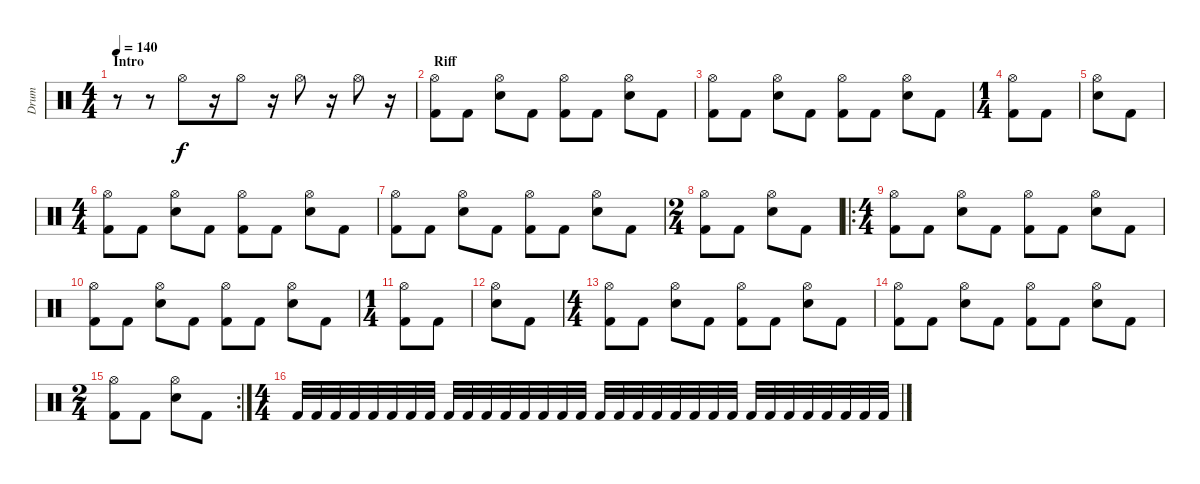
\track ("Drum" "Drum") {instrument percussion}
\staff {score}
\articulation defaults
\ts (4 4)
\section ("" "Intro")
\tempo 140
\clef neutral
\ks c
r.8{dy f} r.8 "Hi-Hat (open)".8 r.16 "Hi-Hat (open)".8 r.16 "Hi-Hat (open)".8 r.16 "Hi-Hat (open)".8 r.16 |
\section ("" " Riff")
("Hi-Hat (open)" "Kick (hit) 2").8 "Kick (hit) 2".8 ("Hi-Hat (open)" "Electric Snare (hit)").8 "Kick (hit) 2".8 ("Hi-Hat (open)" "Kick (hit) 2").8 "Kick (hit) 2".8 ("Hi-Hat (open)" "Electric Snare (hit)").8 "Kick (hit) 2".8 |
("Hi-Hat (open)" "Kick (hit) 2").8 "Kick (hit) 2".8 ("Hi-Hat (open)" "Electric Snare (hit)").8 "Kick (hit) 2".8 ("Hi-Hat (open)" "Kick (hit) 2").8 "Kick (hit) 2".8 ("Hi-Hat (open)" "Electric Snare (hit)").8 "Kick (hit) 2".8 |
\ts (1 4)
("Hi-Hat (open)" "Kick (hit) 2").8 "Kick (hit) 2".8 |
("Hi-Hat (open)" "Electric Snare (hit)").8 "Kick (hit) 2".8 |
\ts (4 4)
("Hi-Hat (open)" "Kick (hit) 2").8 "Kick (hit) 2".8 ("Hi-Hat (open)" "Electric Snare (hit)").8 "Kick (hit) 2".8 ("Hi-Hat (open)" "Kick (hit) 2").8 "Kick (hit) 2".8 ("Hi-Hat (open)" "Electric Snare (hit)").8 "Kick (hit) 2".8 |
("Hi-Hat (open)" "Kick (hit) 2").8 "Kick (hit) 2".8 ("Hi-Hat (open)" "Electric Snare (hit)").8 "Kick (hit) 2".8 ("Hi-Hat (open)" "Kick (hit) 2").8 "Kick (hit) 2".8 ("Hi-Hat (open)" "Electric Snare (hit)").8 "Kick (hit) 2".8 |
\ts (2 4)
("Hi-Hat (open)" "Kick (hit) 2").8 "Kick (hit) 2".8 ("Hi-Hat (open)" "Electric Snare (hit)").8 "Kick (hit) 2".8 |
\ro
\ts (4 4)
("Hi-Hat (open)" "Kick (hit) 2").8 "Kick (hit) 2".8 ("Hi-Hat (open)" "Electric Snare (hit)").8 "Kick (hit) 2".8 ("Hi-Hat (open)" "Kick (hit) 2").8 "Kick (hit) 2".8 ("Hi-Hat (open)" "Electric Snare (hit)").8 "Kick (hit) 2".8 |
("Hi-Hat (open)" "Kick (hit) 2").8 "Kick (hit) 2".8 ("Hi-Hat (open)" "Electric Snare (hit)").8 "Kick (hit) 2".8 ("Hi-Hat (open)" "Kick (hit) 2").8 "Kick (hit) 2".8 ("Hi-Hat (open)" "Electric Snare (hit)").8 "Kick (hit) 2".8 |
\ts (1 4)
("Hi-Hat (open)" "Kick (hit) 2").8 "Kick (hit) 2".8 |
("Hi-Hat (open)" "Electric Snare (hit)").8 "Kick (hit) 2".8 |
\ts (4 4)
("Hi-Hat (open)" "Kick (hit) 2").8 "Kick (hit) 2".8 ("Hi-Hat (open)" "Electric Snare (hit)").8 "Kick (hit) 2".8 ("Hi-Hat (open)" "Kick (hit) 2").8 "Kick (hit) 2".8 ("Hi-Hat (open)" "Electric Snare (hit)").8 "Kick (hit) 2".8 |
("Hi-Hat (open)" "Kick (hit) 2").8 "Kick (hit) 2".8 ("Hi-Hat (open)" "Electric Snare (hit)").8 "Kick (hit) 2".8 ("Hi-Hat (open)" "Kick (hit) 2").8 "Kick (hit) 2".8 ("Hi-Hat (open)" "Electric Snare (hit)").8 "Kick (hit) 2".8 |
\rc 2
\ts (2 4)
("Hi-Hat (open)" "Kick (hit) 2").8 "Kick (hit) 2".8 ("Hi-Hat (open)" "Electric Snare (hit)").8 "Kick (hit) 2".8 |
\ts (4 4)
\section ("" "")
"Kick (hit) 2".32 "Kick (hit) 2".32 "Kick (hit) 2".32 "Kick (hit) 2".32 "Kick (hit) 2".32 "Kick (hit) 2".32 "Kick (hit) 2".32 "Kick (hit) 2".32 "Kick (hit) 2".32 "Kick (hit) 2".32 "Kick (hit) 2".32 "Kick (hit) 2".32 "Kick (hit) 2".32 "Kick (hit) 2".32 "Kick (hit) 2".32 "Kick (hit) 2".32 "Kick (hit) 2".32 "Kick (hit) 2".32 "Kick (hit) 2".32 "Kick (hit) 2".32 "Kick (hit) 2".32 "Kick (hit) 2".32 "Kick (hit) 2".32 "Kick (hit) 2".32 "Kick (hit) 2".32 "Kick (hit) 2".32 "Kick (hit) 2".32 "Kick (hit) 2".32 "Kick (hit) 2".32 "Kick (hit) 2".32 "Kick (hit) 2".32 "Kick (hit) 2".32
